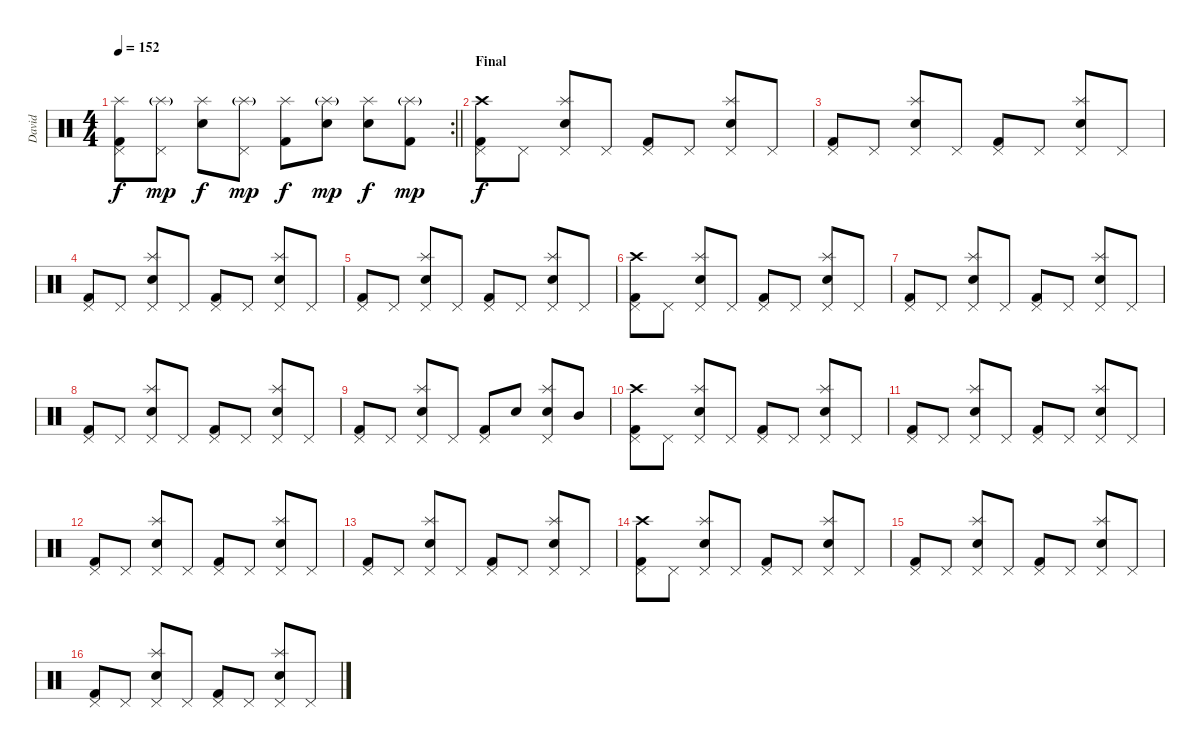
\track ("David" "David") {instrument percussion}
\staff {score}
\articulation defaults
\rc 2
\ts (4 4)
\tempo 152
\clef neutral
\barLineRight lightlight
\ks c
("Kick (hit) 2" "Pedal Hi-Hat (hit)" "Splash (hit)").8{dy f} ("Pedal Hi-Hat (hit)" "Splash (hit)"{g}).8{dy mp} ("Snare (hit) 2" "Splash (hit)").8{dy f} ("Pedal Hi-Hat (hit)" "Splash (hit)"{g}).8{dy mp} ("Kick (hit) 2" "Splash (hit)").8{dy f} ("Snare (hit) 2" "Splash (hit)"{g}).8{dy mp} ("Snare (hit) 2" "Splash (hit)").8{dy f} ("Kick (hit) 2" "Splash (hit)"{g}).8{dy mp} |
\section ("" "Final")
("Kick (hit) 2" "Pedal Hi-Hat (hit)" "Crash high (hit)").8{dy f} "Pedal Hi-Hat (hit)".8 ("Snare (hit) 2" "Pedal Hi-Hat (hit)" "Splash (hit)").8 "Pedal Hi-Hat (hit)".8 ("Kick (hit) 2" "Pedal Hi-Hat (hit)").8 "Pedal Hi-Hat (hit)".8 ("Snare (hit) 2" "Pedal Hi-Hat (hit)" "Splash (hit)").8 "Pedal Hi-Hat (hit)".8 |
("Kick (hit) 2" "Pedal Hi-Hat (hit)").8 "Pedal Hi-Hat (hit)".8 ("Snare (hit) 2" "Pedal Hi-Hat (hit)" "Splash (hit)").8 "Pedal Hi-Hat (hit)".8 ("Kick (hit) 2" "Pedal Hi-Hat (hit)").8 "Pedal Hi-Hat (hit)".8 ("Snare (hit) 2" "Pedal Hi-Hat (hit)" "Splash (hit)").8 "Pedal Hi-Hat (hit)".8 |
("Kick (hit) 2" "Pedal Hi-Hat (hit)").8 "Pedal Hi-Hat (hit)".8 ("Snare (hit) 2" "Pedal Hi-Hat (hit)" "Splash (hit)").8 "Pedal Hi-Hat (hit)".8 ("Kick (hit) 2" "Pedal Hi-Hat (hit)").8 "Pedal Hi-Hat (hit)".8 ("Snare (hit) 2" "Pedal Hi-Hat (hit)" "Splash (hit)").8 "Pedal Hi-Hat (hit)".8 |
("Kick (hit) 2" "Pedal Hi-Hat (hit)").8 "Pedal Hi-Hat (hit)".8 ("Snare (hit) 2" "Pedal Hi-Hat (hit)" "Splash (hit)").8 "Pedal Hi-Hat (hit)".8 ("Kick (hit) 2" "Pedal Hi-Hat (hit)").8 "Pedal Hi-Hat (hit)".8 ("Snare (hit) 2" "Pedal Hi-Hat (hit)" "Splash (hit)").8 "Pedal Hi-Hat (hit)".8 |
("Kick (hit) 2" "Pedal Hi-Hat (hit)" "Crash high (hit)").8 "Pedal Hi-Hat (hit)".8 ("Snare (hit) 2" "Pedal Hi-Hat (hit)" "Splash (hit)").8 "Pedal Hi-Hat (hit)".8 ("Kick (hit) 2" "Pedal Hi-Hat (hit)").8 "Pedal Hi-Hat (hit)".8 ("Snare (hit) 2" "Pedal Hi-Hat (hit)" "Splash (hit)").8 "Pedal Hi-Hat (hit)".8 |
("Kick (hit) 2" "Pedal Hi-Hat (hit)").8 "Pedal Hi-Hat (hit)".8 ("Snare (hit) 2" "Pedal Hi-Hat (hit)" "Splash (hit)").8 "Pedal Hi-Hat (hit)".8 ("Kick (hit) 2" "Pedal Hi-Hat (hit)").8 "Pedal Hi-Hat (hit)".8 ("Snare (hit) 2" "Pedal Hi-Hat (hit)" "Splash (hit)").8 "Pedal Hi-Hat (hit)".8 |
("Kick (hit) 2" "Pedal Hi-Hat (hit)").8 "Pedal Hi-Hat (hit)".8 ("Snare (hit) 2" "Pedal Hi-Hat (hit)" "Splash (hit)").8 "Pedal Hi-Hat (hit)".8 ("Kick (hit) 2" "Pedal Hi-Hat (hit)").8 "Pedal Hi-Hat (hit)".8 ("Snare (hit) 2" "Pedal Hi-Hat (hit)" "Splash (hit)").8 "Pedal Hi-Hat (hit)".8 |
("Kick (hit) 2" "Pedal Hi-Hat (hit)").8 "Pedal Hi-Hat (hit)".8 ("Snare (hit) 2" "Pedal Hi-Hat (hit)" "Splash (hit)").8 "Pedal Hi-Hat (hit)".8 ("Kick (hit) 2" "Pedal Hi-Hat (hit)").8 "Snare (hit) 2".8 ("Snare (hit) 2" "Pedal Hi-Hat (hit)" "Splash (hit)").8 "Mid Tom (hit)".8 |
("Kick (hit) 2" "Pedal Hi-Hat (hit)" "Crash high (hit)").8 "Pedal Hi-Hat (hit)".8 ("Snare (hit) 2" "Pedal Hi-Hat (hit)" "Splash (hit)").8 "Pedal Hi-Hat (hit)".8 ("Kick (hit) 2" "Pedal Hi-Hat (hit)").8 "Pedal Hi-Hat (hit)".8 ("Snare (hit) 2" "Pedal Hi-Hat (hit)" "Splash (hit)").8 "Pedal Hi-Hat (hit)".8 |
("Kick (hit) 2" "Pedal Hi-Hat (hit)").8 "Pedal Hi-Hat (hit)".8 ("Snare (hit) 2" "Pedal Hi-Hat (hit)" "Splash (hit)").8 "Pedal Hi-Hat (hit)".8 ("Kick (hit) 2" "Pedal Hi-Hat (hit)").8 "Pedal Hi-Hat (hit)".8 ("Snare (hit) 2" "Pedal Hi-Hat (hit)" "Splash (hit)").8 "Pedal Hi-Hat (hit)".8 |
("Kick (hit) 2" "Pedal Hi-Hat (hit)").8 "Pedal Hi-Hat (hit)".8 ("Snare (hit) 2" "Pedal Hi-Hat (hit)" "Splash (hit)").8 "Pedal Hi-Hat (hit)".8 ("Kick (hit) 2" "Pedal Hi-Hat (hit)").8 "Pedal Hi-Hat (hit)".8 ("Snare (hit) 2" "Pedal Hi-Hat (hit)" "Splash (hit)").8 "Pedal Hi-Hat (hit)".8 |
("Kick (hit) 2" "Pedal Hi-Hat (hit)").8 "Pedal Hi-Hat (hit)".8 ("Snare (hit) 2" "Pedal Hi-Hat (hit)" "Splash (hit)").8 "Pedal Hi-Hat (hit)".8 ("Kick (hit) 2" "Pedal Hi-Hat (hit)").8 "Pedal Hi-Hat (hit)".8 ("Snare (hit) 2" "Pedal Hi-Hat (hit)" "Splash (hit)").8 "Pedal Hi-Hat (hit)".8 |
("Kick (hit) 2" "Pedal Hi-Hat (hit)" "Crash high (hit)").8 "Pedal Hi-Hat (hit)".8 ("Snare (hit) 2" "Pedal Hi-Hat (hit)" "Splash (hit)").8 "Pedal Hi-Hat (hit)".8 ("Kick (hit) 2" "Pedal Hi-Hat (hit)").8 "Pedal Hi-Hat (hit)".8 ("Snare (hit) 2" "Pedal Hi-Hat (hit)" "Splash (hit)").8 "Pedal Hi-Hat (hit)".8 |
("Kick (hit) 2" "Pedal Hi-Hat (hit)").8 "Pedal Hi-Hat (hit)".8 ("Snare (hit) 2" "Pedal Hi-Hat (hit)" "Splash (hit)").8 "Pedal Hi-Hat (hit)".8 ("Kick (hit) 2" "Pedal Hi-Hat (hit)").8 "Pedal Hi-Hat (hit)".8 ("Snare (hit) 2" "Pedal Hi-Hat (hit)" "Splash (hit)").8 "Pedal Hi-Hat (hit)".8 |
("Kick (hit) 2" "Pedal Hi-Hat (hit)").8 "Pedal Hi-Hat (hit)".8 ("Snare (hit) 2" "Pedal Hi-Hat (hit)" "Splash (hit)").8 "Pedal Hi-Hat (hit)".8 ("Kick (hit) 2" "Pedal Hi-Hat (hit)").8 "Pedal Hi-Hat (hit)".8 ("Snare (hit) 2" "Pedal Hi-Hat (hit)" "Splash (hit)").8 "Pedal Hi-Hat (hit)".8
